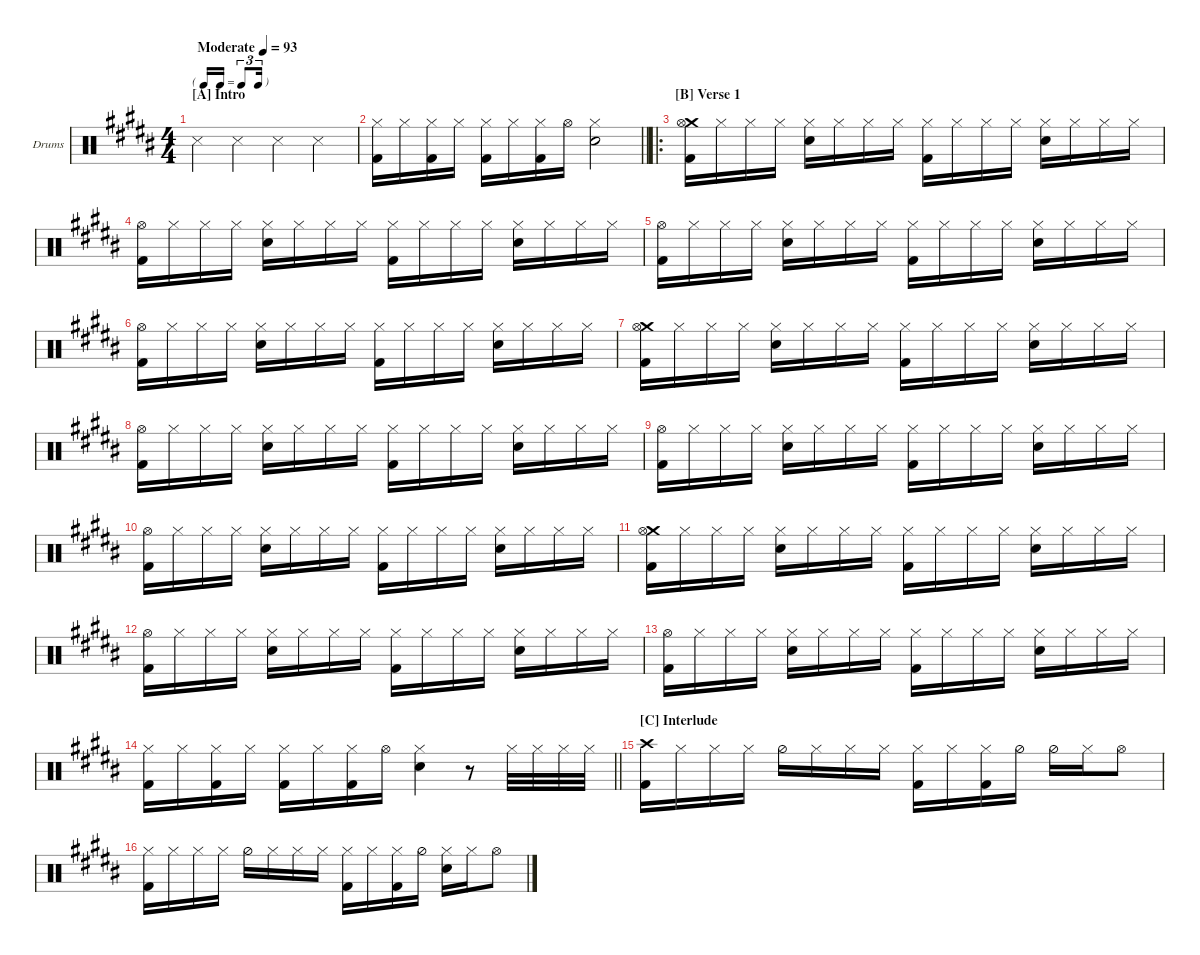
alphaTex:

\hideDynamics
\bracketExtendMode groupsimilarinstruments
\firstSystemTrackNameOrientation horizontal
\otherSystemsTrackNameOrientation horizontal
\track ("Drumkit" "Drums") {multiBarRest instrument percussion}
\staff {score}
\articulation defaults
\ts (4 4)
\beaming (8 2 2 2 2)
\tf triplet16th
\section ("A" "Intro")
\tempo (93 "Moderate")
\clef neutral
\ks b "Snare (side stick) 3"{acc forcenatural}.4{dy mf} "Snare (side stick) 3"{acc forcenatural}.4 "Snare (side stick) 3"{acc forcenatural}.4 "Snare (side stick) 3"{acc forcenatural}.4
|
\barLineRight lightlight
("Hi-Hat (closed)"{acc forcenatural} "Kick (hit) 2"{acc forcenatural}).16{dy f} "Hi-Hat (closed)"{acc forcenatural}.16{dy mp} ("Hi-Hat (closed)"{acc forcenatural} "Kick (hit) 2"{acc forcenatural}).16{dy mf} "Hi-Hat (closed)"{acc forcenatural}.16{dy mp} ("Hi-Hat (closed)"{acc forcenatural} "Kick (hit) 2"{acc forcenatural}).16{dy f} "Hi-Hat (closed)"{acc forcenatural}.16{dy mp} ("Hi-Hat (closed)"{acc forcenatural} "Kick (hit) 2"{acc forcenatural}).16{dy mf} "Hi-Hat (open)"{acc forcenatural}.16{dy mp} ("Hi-Hat (closed)"{acc forcenatural} "Snare (hit) 2"{acc forcenatural}).2{dy f} |
\ro
\section ("B" "Verse 1")
("Crash medium (hit)"{acc forcenatural} "Hi-Hat (open)"{acc forcenatural} "Kick (hit) 2"{acc forcenatural}).16 "Hi-Hat (closed)"{acc forcenatural}.16{dy mp} "Hi-Hat (closed)"{acc forcenatural}.16{dy mf} "Hi-Hat (closed)"{acc forcenatural}.16{dy mp} ("Hi-Hat (closed)"{acc forcenatural} "Snare (hit) 2"{acc forcenatural}).16{dy f} "Hi-Hat (closed)"{acc forcenatural}.16{dy mp} "Hi-Hat (closed)"{acc forcenatural}.16{dy mf} "Hi-Hat (closed)"{acc forcenatural}.16{dy mp} ("Hi-Hat (closed)"{acc forcenatural} "Kick (hit) 2"{acc forcenatural}).16{dy f} "Hi-Hat (closed)"{acc forcenatural}.16{dy mp} "Hi-Hat (closed)"{acc forcenatural}.16{dy mf} "Hi-Hat (closed)"{acc forcenatural}.16{dy mp} ("Hi-Hat (closed)"{acc forcenatural} "Snare (hit) 2"{acc forcenatural}).16{dy f} "Hi-Hat (closed)"{acc forcenatural}.16{dy mp} "Hi-Hat (closed)"{acc forcenatural}.16{dy mf} "Hi-Hat (closed)"{acc forcenatural}.16{dy mp} |
("Hi-Hat (open)"{acc forcenatural} "Kick (hit) 2"{acc forcenatural}).16{dy f} "Hi-Hat (closed)"{acc forcenatural}.16{dy mp} "Hi-Hat (closed)"{acc forcenatural}.16{dy mf} "Hi-Hat (closed)"{acc forcenatural}.16{dy mp} ("Hi-Hat (closed)"{acc forcenatural} "Snare (hit) 2"{acc forcenatural}).16{dy f} "Hi-Hat (closed)"{acc forcenatural}.16{dy mp} "Hi-Hat (closed)"{acc forcenatural}.16{dy mf} "Hi-Hat (closed)"{acc forcenatural}.16{dy mp} ("Hi-Hat (closed)"{acc forcenatural} "Kick (hit) 2"{acc forcenatural}).16{dy f} "Hi-Hat (closed)"{acc forcenatural}.16{dy mp} "Hi-Hat (closed)"{acc forcenatural}.16{dy mf} "Hi-Hat (closed)"{acc forcenatural}.16{dy mp} ("Hi-Hat (closed)"{acc forcenatural} "Snare (hit) 2"{acc forcenatural}).16{dy f} "Hi-Hat (closed)"{acc forcenatural}.16{dy mp} "Hi-Hat (closed)"{acc forcenatural}.16{dy mf} "Hi-Hat (closed)"{acc forcenatural}.16{dy mp} |
("Hi-Hat (open)"{acc forcenatural} "Kick (hit) 2"{acc forcenatural}).16{dy f} "Hi-Hat (closed)"{acc forcenatural}.16{dy mp} "Hi-Hat (closed)"{acc forcenatural}.16{dy mf} "Hi-Hat (closed)"{acc forcenatural}.16{dy mp} ("Hi-Hat (closed)"{acc forcenatural} "Snare (hit) 2"{acc forcenatural}).16{dy f} "Hi-Hat (closed)"{acc forcenatural}.16{dy mp} "Hi-Hat (closed)"{acc forcenatural}.16{dy mf} "Hi-Hat (closed)"{acc forcenatural}.16{dy mp} ("Hi-Hat (closed)"{acc forcenatural} "Kick (hit) 2"{acc forcenatural}).16{dy f} "Hi-Hat (closed)"{acc forcenatural}.16{dy mp} "Hi-Hat (closed)"{acc forcenatural}.16{dy mf} "Hi-Hat (closed)"{acc forcenatural}.16{dy mp} ("Hi-Hat (closed)"{acc forcenatural} "Snare (hit) 2"{acc forcenatural}).16{dy f} "Hi-Hat (closed)"{acc forcenatural}.16{dy mp} "Hi-Hat (closed)"{acc forcenatural}.16{dy mf} "Hi-Hat (closed)"{acc forcenatural}.16{dy mp} |
("Hi-Hat (open)"{acc forcenatural} "Kick (hit) 2"{acc forcenatural}).16{dy f} "Hi-Hat (closed)"{acc forcenatural}.16{dy mp} "Hi-Hat (closed)"{acc forcenatural}.16{dy mf} "Hi-Hat (closed)"{acc forcenatural}.16{dy mp} ("Hi-Hat (closed)"{acc forcenatural} "Snare (hit) 2"{acc forcenatural}).16{dy f} "Hi-Hat (closed)"{acc forcenatural}.16{dy mp} "Hi-Hat (closed)"{acc forcenatural}.16{dy mf} "Hi-Hat (closed)"{acc forcenatural}.16{dy mp} ("Hi-Hat (closed)"{acc forcenatural} "Kick (hit) 2"{acc forcenatural}).16{dy f} "Hi-Hat (closed)"{acc forcenatural}.16{dy mp} "Hi-Hat (closed)"{acc forcenatural}.16{dy mf} "Hi-Hat (closed)"{acc forcenatural}.16{dy mp} ("Hi-Hat (closed)"{acc forcenatural} "Snare (hit) 2"{acc forcenatural}).16{dy f} "Hi-Hat (closed)"{acc forcenatural}.16{dy mp} "Hi-Hat (closed)"{acc forcenatural}.16{dy mf} "Hi-Hat (closed)"{acc forcenatural}.16{dy mp} |
("Crash medium (hit)"{acc forcenatural} "Hi-Hat (open)"{acc forcenatural} "Kick (hit) 2"{acc forcenatural}).16{dy f} "Hi-Hat (closed)"{acc forcenatural}.16{dy mp} "Hi-Hat (closed)"{acc forcenatural}.16{dy mf} "Hi-Hat (closed)"{acc forcenatural}.16{dy mp} ("Hi-Hat (closed)"{acc forcenatural} "Snare (hit) 2"{acc forcenatural}).16{dy f} "Hi-Hat (closed)"{acc forcenatural}.16{dy mp} "Hi-Hat (closed)"{acc forcenatural}.16{dy mf} "Hi-Hat (closed)"{acc forcenatural}.16{dy mp} ("Hi-Hat (closed)"{acc forcenatural} "Kick (hit) 2"{acc forcenatural}).16{dy f} "Hi-Hat (closed)"{acc forcenatural}.16{dy mp} "Hi-Hat (closed)"{acc forcenatural}.16{dy mf} "Hi-Hat (closed)"{acc forcenatural}.16{dy mp} ("Hi-Hat (closed)"{acc forcenatural} "Snare (hit) 2"{acc forcenatural}).16{dy f} "Hi-Hat (closed)"{acc forcenatural}.16{dy mp} "Hi-Hat (closed)"{acc forcenatural}.16{dy mf} "Hi-Hat (closed)"{acc forcenatural}.16{dy mp} |
("Hi-Hat (open)"{acc forcenatural} "Kick (hit) 2"{acc forcenatural}).16{dy f} "Hi-Hat (closed)"{acc forcenatural}.16{dy mp} "Hi-Hat (closed)"{acc forcenatural}.16{dy mf} "Hi-Hat (closed)"{acc forcenatural}.16{dy mp} ("Hi-Hat (closed)"{acc forcenatural} "Snare (hit) 2"{acc forcenatural}).16{dy f} "Hi-Hat (closed)"{acc forcenatural}.16{dy mp} "Hi-Hat (closed)"{acc forcenatural}.16{dy mf} "Hi-Hat (closed)"{acc forcenatural}.16{dy mp} ("Hi-Hat (closed)"{acc forcenatural} "Kick (hit) 2"{acc forcenatural}).16{dy f} "Hi-Hat (closed)"{acc forcenatural}.16{dy mp} "Hi-Hat (closed)"{acc forcenatural}.16{dy mf} "Hi-Hat (closed)"{acc forcenatural}.16{dy mp} ("Hi-Hat (closed)"{acc forcenatural} "Snare (hit) 2"{acc forcenatural}).16{dy f} "Hi-Hat (closed)"{acc forcenatural}.16{dy mp} "Hi-Hat (closed)"{acc forcenatural}.16{dy mf} "Hi-Hat (closed)"{acc forcenatural}.16{dy mp} |
("Hi-Hat (open)"{acc forcenatural} "Kick (hit) 2"{acc forcenatural}).16{dy f} "Hi-Hat (closed)"{acc forcenatural}.16{dy mp} "Hi-Hat (closed)"{acc forcenatural}.16{dy mf} "Hi-Hat (closed)"{acc forcenatural}.16{dy mp} ("Hi-Hat (closed)"{acc forcenatural} "Snare (hit) 2"{acc forcenatural}).16{dy f} "Hi-Hat (closed)"{acc forcenatural}.16{dy mp} "Hi-Hat (closed)"{acc forcenatural}.16{dy mf} "Hi-Hat (closed)"{acc forcenatural}.16{dy mp} ("Hi-Hat (closed)"{acc forcenatural} "Kick (hit) 2"{acc forcenatural}).16{dy f} "Hi-Hat (closed)"{acc forcenatural}.16{dy mp} "Hi-Hat (closed)"{acc forcenatural}.16{dy mf} "Hi-Hat (closed)"{acc forcenatural}.16{dy mp} ("Hi-Hat (closed)"{acc forcenatural} "Snare (hit) 2"{acc forcenatural}).16{dy f} "Hi-Hat (closed)"{acc forcenatural}.16{dy mp} "Hi-Hat (closed)"{acc forcenatural}.16{dy mf} "Hi-Hat (closed)"{acc forcenatural}.16{dy mp} |
("Hi-Hat (open)"{acc forcenatural} "Kick (hit) 2"{acc forcenatural}).16{dy f} "Hi-Hat (closed)"{acc forcenatural}.16{dy mp} "Hi-Hat (closed)"{acc forcenatural}.16{dy mf} "Hi-Hat (closed)"{acc forcenatural}.16{dy mp} ("Hi-Hat (closed)"{acc forcenatural} "Snare (hit) 2"{acc forcenatural}).16{dy f} "Hi-Hat (closed)"{acc forcenatural}.16{dy mp} "Hi-Hat (closed)"{acc forcenatural}.16{dy mf} "Hi-Hat (closed)"{acc forcenatural}.16{dy mp} ("Hi-Hat (closed)"{acc forcenatural} "Kick (hit) 2"{acc forcenatural}).16{dy f} "Hi-Hat (closed)"{acc forcenatural}.16{dy mp} "Hi-Hat (closed)"{acc forcenatural}.16{dy mf} "Hi-Hat (closed)"{acc forcenatural}.16{dy mp} ("Hi-Hat (closed)"{acc forcenatural} "Snare (hit) 2"{acc forcenatural}).16{dy f} "Hi-Hat (closed)"{acc forcenatural}.16{dy mp} "Hi-Hat (closed)"{acc forcenatural}.16{dy mf} "Hi-Hat (closed)"{acc forcenatural}.16{dy mp} |
("Crash medium (hit)"{acc forcenatural} "Hi-Hat (open)"{acc forcenatural} "Kick (hit) 2"{acc forcenatural}).16{dy f} "Hi-Hat (closed)"{acc forcenatural}.16{dy mp} "Hi-Hat (closed)"{acc forcenatural}.16{dy mf} "Hi-Hat (closed)"{acc forcenatural}.16{dy mp} ("Hi-Hat (closed)"{acc forcenatural} "Snare (hit) 2"{acc forcenatural}).16{dy f} "Hi-Hat (closed)"{acc forcenatural}.16{dy mp} "Hi-Hat (closed)"{acc forcenatural}.16{dy mf} "Hi-Hat (closed)"{acc forcenatural}.16{dy mp} ("Hi-Hat (closed)"{acc forcenatural} "Kick (hit) 2"{acc forcenatural}).16{dy f} "Hi-Hat (closed)"{acc forcenatural}.16{dy mp} "Hi-Hat (closed)"{acc forcenatural}.16{dy mf} "Hi-Hat (closed)"{acc forcenatural}.16{dy mp} ("Hi-Hat (closed)"{acc forcenatural} "Snare (hit) 2"{acc forcenatural}).16{dy f} "Hi-Hat (closed)"{acc forcenatural}.16{dy mp} "Hi-Hat (closed)"{acc forcenatural}.16{dy mf} "Hi-Hat (closed)"{acc forcenatural}.16{dy mp} |
("Hi-Hat (open)"{acc forcenatural} "Kick (hit) 2"{acc forcenatural}).16{dy f} "Hi-Hat (closed)"{acc forcenatural}.16{dy mp} "Hi-Hat (closed)"{acc forcenatural}.16{dy mf} "Hi-Hat (closed)"{acc forcenatural}.16{dy mp} ("Hi-Hat (closed)"{acc forcenatural} "Snare (hit) 2"{acc forcenatural}).16{dy f} "Hi-Hat (closed)"{acc forcenatural}.16{dy mp} "Hi-Hat (closed)"{acc forcenatural}.16{dy mf} "Hi-Hat (closed)"{acc forcenatural}.16{dy mp} ("Hi-Hat (closed)"{acc forcenatural} "Kick (hit) 2"{acc forcenatural}).16{dy f} "Hi-Hat (closed)"{acc forcenatural}.16{dy mp} "Hi-Hat (closed)"{acc forcenatural}.16{dy mf} "Hi-Hat (closed)"{acc forcenatural}.16{dy mp} ("Hi-Hat (closed)"{acc forcenatural} "Snare (hit) 2"{acc forcenatural}).16{dy f} "Hi-Hat (closed)"{acc forcenatural}.16{dy mp} "Hi-Hat (closed)"{acc forcenatural}.16{dy mf} "Hi-Hat (closed)"{acc forcenatural}.16{dy mp} |
("Hi-Hat (open)"{acc forcenatural} "Kick (hit) 2"{acc forcenatural}).16{dy f} "Hi-Hat (closed)"{acc forcenatural}.16{dy mp} "Hi-Hat (closed)"{acc forcenatural}.16{dy mf} "Hi-Hat (closed)"{acc forcenatural}.16{dy mp} ("Hi-Hat (closed)"{acc forcenatural} "Snare (hit) 2"{acc forcenatural}).16{dy f} "Hi-Hat (closed)"{acc forcenatural}.16{dy mp} "Hi-Hat (closed)"{acc forcenatural}.16{dy mf} "Hi-Hat (closed)"{acc forcenatural}.16{dy mp} ("Hi-Hat (closed)"{acc forcenatural} "Kick (hit) 2"{acc forcenatural}).16{dy f} "Hi-Hat (closed)"{acc forcenatural}.16{dy mp} "Hi-Hat (closed)"{acc forcenatural}.16{dy mf} "Hi-Hat (closed)"{acc forcenatural}.16{dy mp} ("Hi-Hat (closed)"{acc forcenatural} "Snare (hit) 2"{acc forcenatural}).16{dy f} "Hi-Hat (closed)"{acc forcenatural}.16{dy mp} "Hi-Hat (closed)"{acc forcenatural}.16{dy mf} "Hi-Hat (closed)"{acc forcenatural}.16{dy mp} |
\barLineRight lightlight
("Hi-Hat (closed)"{acc forcenatural} "Kick (hit) 2"{acc forcenatural}).16{dy f} "Hi-Hat (closed)"{acc forcenatural}.16{dy mp} ("Hi-Hat (closed)"{acc forcenatural} "Kick (hit) 2"{acc forcenatural}).16{dy mf} "Hi-Hat (closed)"{acc forcenatural}.16{dy mp} ("Hi-Hat (closed)"{acc forcenatural} "Kick (hit) 2"{acc forcenatural}).16{dy f} "Hi-Hat (closed)"{acc forcenatural}.16{dy mp} ("Hi-Hat (closed)"{acc forcenatural} "Kick (hit) 2"{acc forcenatural}).16{dy mf} "Hi-Hat (open)"{acc forcenatural}.16{dy mp} ("Hi-Hat (closed)"{acc forcenatural} "Snare (hit) 2"{acc forcenatural}).4{dy f} r.8 "Hi-Hat (closed)"{acc forcenatural}.32{dy mp} "Hi-Hat (closed)"{acc forcenatural}.32 "Hi-Hat (closed)"{acc forcenatural}.32 "Hi-Hat (closed)"{acc forcenatural}.32 |
\section ("C" "Interlude")
("Kick (hit) 2"{acc forcenatural} "Crash high (hit)"{acc forcenatural}).16{dy f} "Hi-Hat (closed)"{acc forcenatural}.16 "Hi-Hat (closed)"{acc forcenatural}.16{dy mf} "Hi-Hat (closed)"{acc forcenatural}.16{dy mp} "Hi-Hat (half)"{acc forcenatural}.16{dy f} "Hi-Hat (closed)"{acc forcenatural}.16 "Hi-Hat (closed)"{acc forcenatural}.16{dy mf} "Hi-Hat (closed)"{acc forcenatural}.16{dy mp} ("Hi-Hat (closed)"{acc forcenatural} "Kick (hit) 2"{acc forcenatural}).16{dy f} "Hi-Hat (closed)"{acc forcenatural}.16{dy mp} ("Hi-Hat (closed)"{acc forcenatural} "Kick (hit) 2"{acc forcenatural}).16{dy mf} "Hi-Hat (half)"{acc forcenatural}.16{dy mp} "Hi-Hat (half)"{acc forcenatural}.16{dy f} "Hi-Hat (closed)"{acc forcenatural}.16{dy mp} "Hi-Hat (open)"{acc forcenatural}.8{dy mf} |
("Kick (hit) 2"{acc forcenatural} "Hi-Hat (closed)"{acc forcenatural}).16{dy f} "Hi-Hat (closed)"{acc forcenatural}.16 "Hi-Hat (closed)"{acc forcenatural}.16{dy mf} "Hi-Hat (closed)"{acc forcenatural}.16{dy mp} "Hi-Hat (half)"{acc forcenatural}.16{dy f} "Hi-Hat (closed)"{acc forcenatural}.16 "Hi-Hat (closed)"{acc forcenatural}.16{dy mf} "Hi-Hat (closed)"{acc forcenatural}.16{dy mp} ("Hi-Hat (closed)"{acc forcenatural} "Kick (hit) 2"{acc forcenatural}).16{dy f} "Hi-Hat (closed)"{acc forcenatural}.16{dy mp} ("Hi-Hat (closed)"{acc forcenatural} "Kick (hit) 2"{acc forcenatural}).16{dy mf} "Hi-Hat (half)"{acc forcenatural}.16{dy mp} ("Hi-Hat (closed)"{acc forcenatural} "Snare (hit) 2"{acc forcenatural}).16{dy f} "Hi-Hat (closed)"{acc forcenatural}.16{dy mp} "Hi-Hat (open)"{acc forcenatural}.8{dy mf}
